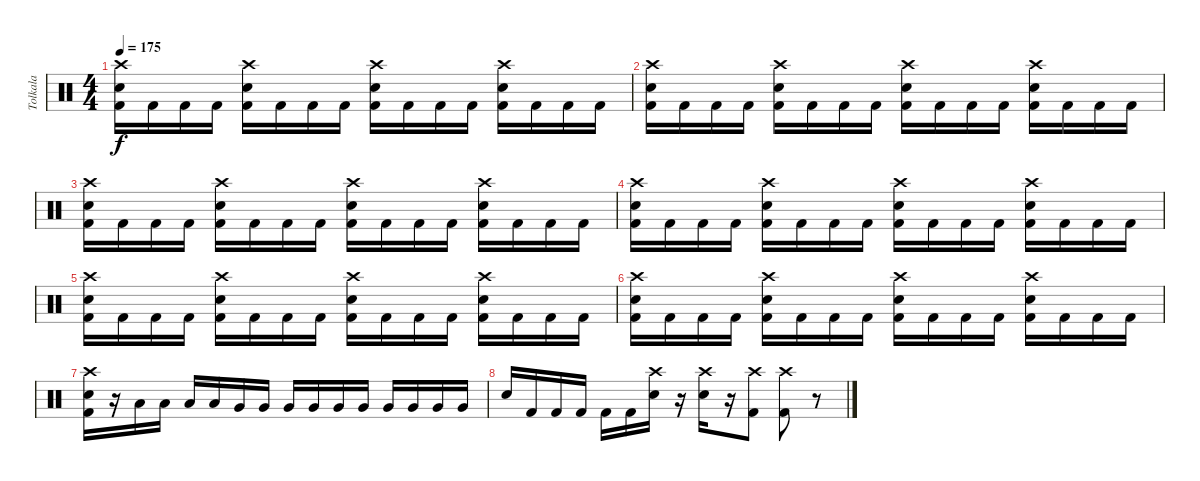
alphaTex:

\track ("Tolkala" "Tolkala") {instrument percussion}
\staff {score}
\articulation defaults
\ts (4 4)
\section ("" "")
\tempo 175
\clef neutral
\ks c
("Crash high (hit)" "Electric Snare (hit)" "Kick (hit) 2").16{dy f} "Kick (hit) 2".16 "Kick (hit) 2".16 "Kick (hit) 2".16 ("Crash high (hit)" "Electric Snare (hit)" "Kick (hit) 2").16 "Kick (hit) 2".16 "Kick (hit) 2".16 "Kick (hit) 2".16 ("Crash high (hit)" "Electric Snare (hit)" "Kick (hit) 2").16 "Kick (hit) 2".16 "Kick (hit) 2".16 "Kick (hit) 2".16 ("Crash high (hit)" "Electric Snare (hit)" "Kick (hit) 2").16 "Kick (hit) 2".16 "Kick (hit) 2".16 "Kick (hit) 2".16 |
("Crash high (hit)" "Electric Snare (hit)" "Kick (hit) 2").16 "Kick (hit) 2".16 "Kick (hit) 2".16 "Kick (hit) 2".16 ("Crash high (hit)" "Electric Snare (hit)" "Kick (hit) 2").16 "Kick (hit) 2".16 "Kick (hit) 2".16 "Kick (hit) 2".16 ("Crash high (hit)" "Electric Snare (hit)" "Kick (hit) 2").16 "Kick (hit) 2".16 "Kick (hit) 2".16 "Kick (hit) 2".16 ("Crash high (hit)" "Electric Snare (hit)" "Kick (hit) 2").16 "Kick (hit) 2".16 "Kick (hit) 2".16 "Kick (hit) 2".16 |
("Crash high (hit)" "Electric Snare (hit)" "Kick (hit) 2").16 "Kick (hit) 2".16 "Kick (hit) 2".16 "Kick (hit) 2".16 ("Crash high (hit)" "Electric Snare (hit)" "Kick (hit) 2").16 "Kick (hit) 2".16 "Kick (hit) 2".16 "Kick (hit) 2".16 ("Crash high (hit)" "Electric Snare (hit)" "Kick (hit) 2").16 "Kick (hit) 2".16 "Kick (hit) 2".16 "Kick (hit) 2".16 ("Crash high (hit)" "Electric Snare (hit)" "Kick (hit) 2").16 "Kick (hit) 2".16 "Kick (hit) 2".16 "Kick (hit) 2".16 |
("Crash high (hit)" "Electric Snare (hit)" "Kick (hit) 2").16 "Kick (hit) 2".16 "Kick (hit) 2".16 "Kick (hit) 2".16 ("Crash high (hit)" "Electric Snare (hit)" "Kick (hit) 2").16 "Kick (hit) 2".16 "Kick (hit) 2".16 "Kick (hit) 2".16 ("Crash high (hit)" "Electric Snare (hit)" "Kick (hit) 2").16 "Kick (hit) 2".16 "Kick (hit) 2".16 "Kick (hit) 2".16 ("Crash high (hit)" "Electric Snare (hit)" "Kick (hit) 2").16 "Kick (hit) 2".16 "Kick (hit) 2".16 "Kick (hit) 2".16 |
("Crash high (hit)" "Electric Snare (hit)" "Kick (hit) 2").16 "Kick (hit) 2".16 "Kick (hit) 2".16 "Kick (hit) 2".16 ("Crash high (hit)" "Electric Snare (hit)" "Kick (hit) 2").16 "Kick (hit) 2".16 "Kick (hit) 2".16 "Kick (hit) 2".16 ("Crash high (hit)" "Electric Snare (hit)" "Kick (hit) 2").16 "Kick (hit) 2".16 "Kick (hit) 2".16 "Kick (hit) 2".16 ("Crash high (hit)" "Electric Snare (hit)" "Kick (hit) 2").16 "Kick (hit) 2".16 "Kick (hit) 2".16 "Kick (hit) 2".16 |
("Crash high (hit)" "Electric Snare (hit)" "Kick (hit) 2").16 "Kick (hit) 2".16 "Kick (hit) 2".16 "Kick (hit) 2".16 ("Crash high (hit)" "Electric Snare (hit)" "Kick (hit) 2").16 "Kick (hit) 2".16 "Kick (hit) 2".16 "Kick (hit) 2".16 ("Crash high (hit)" "Electric Snare (hit)" "Kick (hit) 2").16 "Kick (hit) 2".16 "Kick (hit) 2".16 "Kick (hit) 2".16 ("Crash high (hit)" "Electric Snare (hit)" "Kick (hit) 2").16 "Kick (hit) 2".16 "Kick (hit) 2".16 "Kick (hit) 2".16 |
("Crash high (hit)" "Electric Snare (hit)" "Kick (hit) 2").16 r.16 "Low Tom (hit)".16 "Low Tom (hit)".16 "Low Tom (hit)".16 "Low Tom (hit)".16 "Very Low Tom (hit)".16 "Very Low Tom (hit)".16 "Very Low Tom (hit)".16 "Very Low Tom (hit)".16 "Very Low Tom (hit)".16 "Very Low Tom (hit)".16 "Very Low Tom (hit)".16 "Very Low Tom (hit)".16 "Very Low Tom (hit)".16 "Very Low Tom (hit)".16 |
"Electric Snare (hit)".16 "Kick (hit) 2".16 "Kick (hit) 2".16 "Kick (hit) 2".16 "Kick (hit) 2".16 "Kick (hit) 2".16 ("Crash high (hit)" "Electric Snare (hit)").16 r.16 ("Crash high (hit)" "Electric Snare (hit)").16 r.16 ("Crash high (hit)" "Kick (hit) 2").8 ("Crash high (hit)" "Kick (hit) 2").8 r.8
